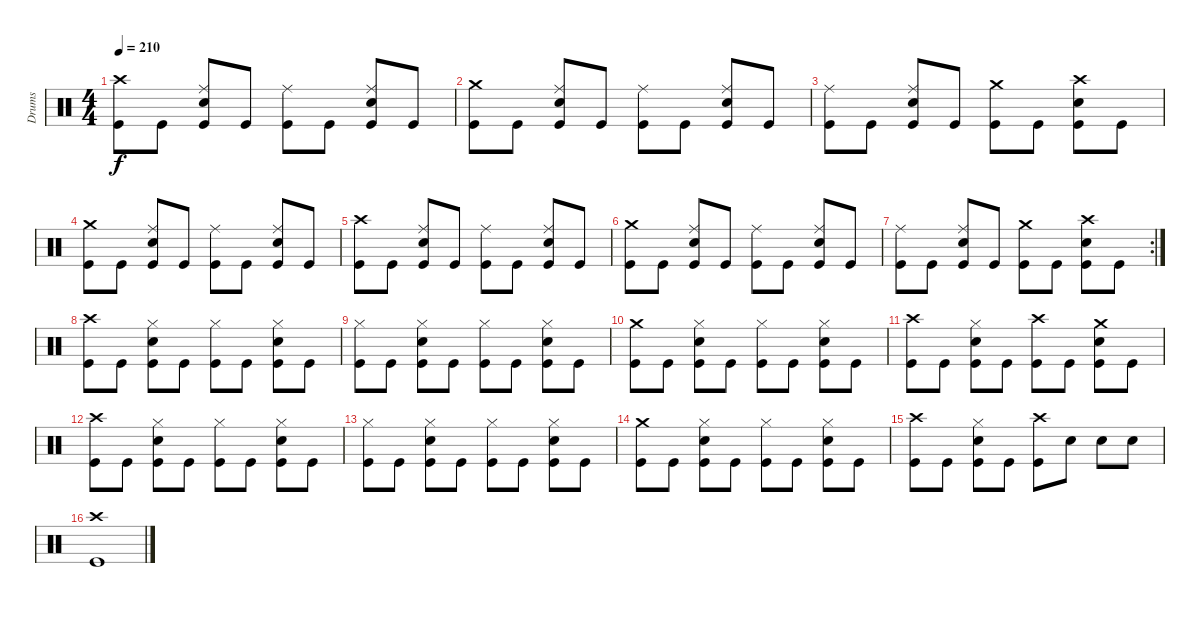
\track ("Drums" "Drums") {instrument percussion}
\staff {score}
\articulation defaults
\ts (4 4)
\tempo 210
\clef neutral
\ks c
("Crash high (hit)" "Kick (hit)").8{dy f} "Kick (hit)".8 ("Ride (middle)" "Electric Snare (hit)" "Kick (hit)").8 "Kick (hit)".8 ("Ride (middle)" "Kick (hit)").8 "Kick (hit)".8 ("Ride (middle)" "Electric Snare (hit)" "Kick (hit)").8 "Kick (hit)".8 |
("Crash medium (hit)" "Kick (hit)").8 "Kick (hit)".8 ("Ride (middle)" "Electric Snare (hit)" "Kick (hit)").8 "Kick (hit)".8 ("Ride (middle)" "Kick (hit)").8 "Kick (hit)".8 ("Ride (middle)" "Electric Snare (hit)" "Kick (hit)").8 "Kick (hit)".8 |
("Ride (middle)" "Kick (hit)").8 "Kick (hit)".8 ("Ride (middle)" "Electric Snare (hit)" "Kick (hit)").8 "Kick (hit)".8 ("Crash medium (hit)" "Kick (hit)").8 "Kick (hit)".8 ("Crash high (hit)" "Electric Snare (hit)" "Kick (hit)").8 "Kick (hit)".8 |
("Crash medium (hit)" "Kick (hit)").8 "Kick (hit)".8 ("Ride (middle)" "Electric Snare (hit)" "Kick (hit)").8 "Kick (hit)".8 ("Ride (middle)" "Kick (hit)").8 "Kick (hit)".8 ("Ride (middle)" "Electric Snare (hit)" "Kick (hit)").8 "Kick (hit)".8 |
("Crash high (hit)" "Kick (hit)").8 "Kick (hit)".8 ("Ride (middle)" "Electric Snare (hit)" "Kick (hit)").8 "Kick (hit)".8 ("Ride (middle)" "Kick (hit)").8 "Kick (hit)".8 ("Ride (middle)" "Electric Snare (hit)" "Kick (hit)").8 "Kick (hit)".8 |
("Crash medium (hit)" "Kick (hit)").8 "Kick (hit)".8 ("Ride (middle)" "Electric Snare (hit)" "Kick (hit)").8 "Kick (hit)".8 ("Ride (middle)" "Kick (hit)").8 "Kick (hit)".8 ("Ride (middle)" "Electric Snare (hit)" "Kick (hit)").8 "Kick (hit)".8 |
\rc 2
("Ride (middle)" "Kick (hit)").8 "Kick (hit)".8 ("Ride (middle)" "Electric Snare (hit)" "Kick (hit)").8 "Kick (hit)".8 ("Crash medium (hit)" "Kick (hit)").8 "Kick (hit)".8 ("Crash high (hit)" "Electric Snare (hit)" "Kick (hit)").8 "Kick (hit)".8 |
("Crash high (hit)" "Kick (hit)").8 "Kick (hit)".8 ("Hi-Hat (closed)" "Electric Snare (hit)" "Kick (hit)").8 "Kick (hit)".8 ("Hi-Hat (closed)" "Kick (hit)").8 "Kick (hit)".8 ("Hi-Hat (closed)" "Electric Snare (hit)" "Kick (hit)").8 "Kick (hit)".8 |
("Hi-Hat (closed)" "Kick (hit)").8 "Kick (hit)".8 ("Hi-Hat (closed)" "Electric Snare (hit)" "Kick (hit)").8 "Kick (hit)".8 ("Hi-Hat (closed)" "Kick (hit)").8 "Kick (hit)".8 ("Hi-Hat (closed)" "Electric Snare (hit)" "Kick (hit)").8 "Kick (hit)".8 |
("Crash medium (hit)" "Kick (hit)").8 "Kick (hit)".8 ("Hi-Hat (closed)" "Electric Snare (hit)" "Kick (hit)").8 "Kick (hit)".8 ("Hi-Hat (closed)" "Kick (hit)").8 "Kick (hit)".8 ("Hi-Hat (closed)" "Electric Snare (hit)" "Kick (hit)").8 "Kick (hit)".8 |
("Crash high (hit)" "Kick (hit)").8 "Kick (hit)".8 ("Hi-Hat (closed)" "Electric Snare (hit)" "Kick (hit)").8 "Kick (hit)".8 ("Crash high (hit)" "Kick (hit)").8 "Kick (hit)".8 ("Crash medium (hit)" "Electric Snare (hit)" "Kick (hit)").8 "Kick (hit)".8 |
("Crash high (hit)" "Kick (hit)").8 "Kick (hit)".8 ("Hi-Hat (closed)" "Electric Snare (hit)" "Kick (hit)").8 "Kick (hit)".8 ("Hi-Hat (closed)" "Kick (hit)").8 "Kick (hit)".8 ("Hi-Hat (closed)" "Electric Snare (hit)" "Kick (hit)").8 "Kick (hit)".8 |
("Hi-Hat (closed)" "Kick (hit)").8 "Kick (hit)".8 ("Hi-Hat (closed)" "Electric Snare (hit)" "Kick (hit)").8 "Kick (hit)".8 ("Hi-Hat (closed)" "Kick (hit)").8 "Kick (hit)".8 ("Hi-Hat (closed)" "Electric Snare (hit)" "Kick (hit)").8 "Kick (hit)".8 |
("Crash medium (hit)" "Kick (hit)").8 "Kick (hit)".8 ("Hi-Hat (closed)" "Electric Snare (hit)" "Kick (hit)").8 "Kick (hit)".8 ("Hi-Hat (closed)" "Kick (hit)").8 "Kick (hit)".8 ("Hi-Hat (closed)" "Electric Snare (hit)" "Kick (hit)").8 "Kick (hit)".8 |
("Crash high (hit)" "Kick (hit)").8 "Kick (hit)".8 ("Hi-Hat (closed)" "Electric Snare (hit)" "Kick (hit)").8 "Kick (hit)".8 ("Crash high (hit)" "Kick (hit)").8 "Electric Snare (hit)".8 "Electric Snare (hit)".8 "Electric Snare (hit)".8 |
("Crash high (hit)" "Kick (hit)").1
